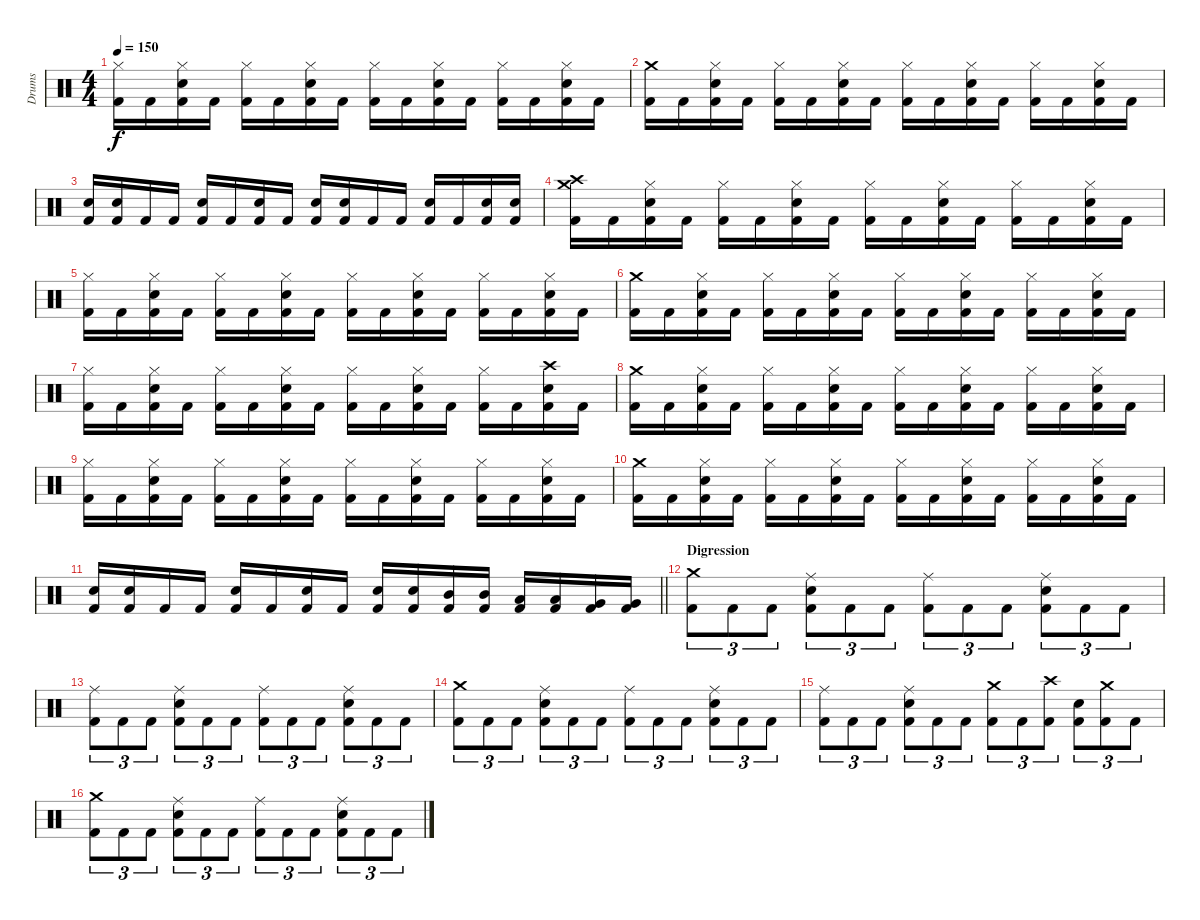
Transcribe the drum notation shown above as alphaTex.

\track ("Drums" "Drums") {instrument percussion}
\staff {score}
\articulation defaults
\ts (4 4)
\tempo 150
\clef neutral
\ks c
("Kick (hit) 2" "Hi-Hat (closed)").16{dy f} "Kick (hit) 2".16 ("Kick (hit) 2" "Snare (hit) 2" "Hi-Hat (closed)").16 "Kick (hit) 2".16 ("Kick (hit) 2" "Hi-Hat (closed)").16 "Kick (hit) 2".16 ("Kick (hit) 2" "Snare (hit) 2" "Hi-Hat (closed)").16 "Kick (hit) 2".16 ("Kick (hit) 2" "Hi-Hat (closed)").16 "Kick (hit) 2".16 ("Kick (hit) 2" "Snare (hit) 2" "Hi-Hat (closed)").16 "Kick (hit) 2".16 ("Kick (hit) 2" "Hi-Hat (closed)").16 "Kick (hit) 2".16 ("Kick (hit) 2" "Snare (hit) 2" "Hi-Hat (closed)").16 "Kick (hit) 2".16 |
("Kick (hit) 2" "Crash medium (hit)").16 "Kick (hit) 2".16 ("Kick (hit) 2" "Snare (hit) 2" "Hi-Hat (closed)").16 "Kick (hit) 2".16 ("Kick (hit) 2" "Hi-Hat (closed)").16 "Kick (hit) 2".16 ("Kick (hit) 2" "Snare (hit) 2" "Hi-Hat (closed)").16 "Kick (hit) 2".16 ("Kick (hit) 2" "Hi-Hat (closed)").16 "Kick (hit) 2".16 ("Kick (hit) 2" "Snare (hit) 2" "Hi-Hat (closed)").16 "Kick (hit) 2".16 ("Kick (hit) 2" "Hi-Hat (closed)").16 "Kick (hit) 2".16 ("Kick (hit) 2" "Snare (hit) 2" "Hi-Hat (closed)").16 "Kick (hit) 2".16 |
("Kick (hit) 2" "Snare (hit) 2").16 ("Kick (hit) 2" "Snare (hit) 2").16 "Kick (hit) 2".16 "Kick (hit) 2".16 ("Kick (hit) 2" "Snare (hit) 2").16 "Kick (hit) 2".16 ("Kick (hit) 2" "Snare (hit) 2").16 "Kick (hit) 2".16 ("Kick (hit) 2" "Snare (hit) 2").16 ("Kick (hit) 2" "Snare (hit) 2").16 "Kick (hit) 2".16 "Kick (hit) 2".16 ("Kick (hit) 2" "Snare (hit) 2").16 "Kick (hit) 2".16 ("Kick (hit) 2" "Snare (hit) 2").16 ("Kick (hit) 2" "Snare (hit) 2").16 |
("Kick (hit) 2" "Crash medium (hit)" "Crash high (hit)").16 "Kick (hit) 2".16 ("Kick (hit) 2" "Snare (hit) 2" "Hi-Hat (closed)").16 "Kick (hit) 2".16 ("Kick (hit) 2" "Hi-Hat (closed)").16 "Kick (hit) 2".16 ("Kick (hit) 2" "Snare (hit) 2" "Hi-Hat (closed)").16 "Kick (hit) 2".16 ("Kick (hit) 2" "Hi-Hat (closed)").16 "Kick (hit) 2".16 ("Kick (hit) 2" "Snare (hit) 2" "Hi-Hat (closed)").16 "Kick (hit) 2".16 ("Kick (hit) 2" "Hi-Hat (closed)").16 "Kick (hit) 2".16 ("Kick (hit) 2" "Snare (hit) 2" "Hi-Hat (closed)").16 "Kick (hit) 2".16 |
("Kick (hit) 2" "Hi-Hat (closed)").16 "Kick (hit) 2".16 ("Kick (hit) 2" "Snare (hit) 2" "Hi-Hat (closed)").16 "Kick (hit) 2".16 ("Kick (hit) 2" "Hi-Hat (closed)").16 "Kick (hit) 2".16 ("Kick (hit) 2" "Snare (hit) 2" "Hi-Hat (closed)").16 "Kick (hit) 2".16 ("Kick (hit) 2" "Hi-Hat (closed)").16 "Kick (hit) 2".16 ("Kick (hit) 2" "Snare (hit) 2" "Hi-Hat (closed)").16 "Kick (hit) 2".16 ("Kick (hit) 2" "Hi-Hat (closed)").16 "Kick (hit) 2".16 ("Kick (hit) 2" "Snare (hit) 2" "Hi-Hat (closed)").16 "Kick (hit) 2".16 |
("Kick (hit) 2" "Crash medium (hit)").16 "Kick (hit) 2".16 ("Kick (hit) 2" "Snare (hit) 2" "Hi-Hat (closed)").16 "Kick (hit) 2".16 ("Kick (hit) 2" "Hi-Hat (closed)").16 "Kick (hit) 2".16 ("Kick (hit) 2" "Snare (hit) 2" "Hi-Hat (closed)").16 "Kick (hit) 2".16 ("Kick (hit) 2" "Hi-Hat (closed)").16 "Kick (hit) 2".16 ("Kick (hit) 2" "Snare (hit) 2" "Hi-Hat (closed)").16 "Kick (hit) 2".16 ("Kick (hit) 2" "Hi-Hat (closed)").16 "Kick (hit) 2".16 ("Kick (hit) 2" "Snare (hit) 2" "Hi-Hat (closed)").16 "Kick (hit) 2".16 |
("Kick (hit) 2" "Hi-Hat (closed)").16 "Kick (hit) 2".16 ("Kick (hit) 2" "Snare (hit) 2" "Hi-Hat (closed)").16 "Kick (hit) 2".16 ("Kick (hit) 2" "Hi-Hat (closed)").16 "Kick (hit) 2".16 ("Kick (hit) 2" "Snare (hit) 2" "Hi-Hat (closed)").16 "Kick (hit) 2".16 ("Kick (hit) 2" "Hi-Hat (closed)").16 "Kick (hit) 2".16 ("Kick (hit) 2" "Snare (hit) 2" "Hi-Hat (closed)").16 "Kick (hit) 2".16 ("Kick (hit) 2" "Hi-Hat (closed)").16 "Kick (hit) 2".16 ("Kick (hit) 2" "Snare (hit) 2" "Crash high (hit)").16 "Kick (hit) 2".16 |
("Kick (hit) 2" "Crash medium (hit)").16 "Kick (hit) 2".16 ("Kick (hit) 2" "Snare (hit) 2" "Hi-Hat (closed)").16 "Kick (hit) 2".16 ("Kick (hit) 2" "Hi-Hat (closed)").16 "Kick (hit) 2".16 ("Kick (hit) 2" "Snare (hit) 2" "Hi-Hat (closed)").16 "Kick (hit) 2".16 ("Kick (hit) 2" "Hi-Hat (closed)").16 "Kick (hit) 2".16 ("Kick (hit) 2" "Snare (hit) 2" "Hi-Hat (closed)").16 "Kick (hit) 2".16 ("Kick (hit) 2" "Hi-Hat (closed)").16 "Kick (hit) 2".16 ("Kick (hit) 2" "Snare (hit) 2" "Hi-Hat (closed)").16 "Kick (hit) 2".16 |
("Kick (hit) 2" "Hi-Hat (closed)").16 "Kick (hit) 2".16 ("Kick (hit) 2" "Snare (hit) 2" "Hi-Hat (closed)").16 "Kick (hit) 2".16 ("Kick (hit) 2" "Hi-Hat (closed)").16 "Kick (hit) 2".16 ("Kick (hit) 2" "Snare (hit) 2" "Hi-Hat (closed)").16 "Kick (hit) 2".16 ("Kick (hit) 2" "Hi-Hat (closed)").16 "Kick (hit) 2".16 ("Kick (hit) 2" "Snare (hit) 2" "Hi-Hat (closed)").16 "Kick (hit) 2".16 ("Kick (hit) 2" "Hi-Hat (closed)").16 "Kick (hit) 2".16 ("Kick (hit) 2" "Snare (hit) 2" "Hi-Hat (closed)").16 "Kick (hit) 2".16 |
("Kick (hit) 2" "Crash medium (hit)").16 "Kick (hit) 2".16 ("Kick (hit) 2" "Snare (hit) 2" "Hi-Hat (closed)").16 "Kick (hit) 2".16 ("Kick (hit) 2" "Hi-Hat (closed)").16 "Kick (hit) 2".16 ("Kick (hit) 2" "Snare (hit) 2" "Hi-Hat (closed)").16 "Kick (hit) 2".16 ("Kick (hit) 2" "Hi-Hat (closed)").16 "Kick (hit) 2".16 ("Kick (hit) 2" "Snare (hit) 2" "Hi-Hat (closed)").16 "Kick (hit) 2".16 ("Kick (hit) 2" "Hi-Hat (closed)").16 "Kick (hit) 2".16 ("Kick (hit) 2" "Snare (hit) 2" "Hi-Hat (closed)").16 "Kick (hit) 2".16 |
\barLineRight lightlight
("Kick (hit) 2" "Snare (hit) 2").16 ("Kick (hit) 2" "Snare (hit) 2").16 "Kick (hit) 2".16 "Kick (hit) 2".16 ("Kick (hit) 2" "Snare (hit) 2").16 "Kick (hit) 2".16 ("Kick (hit) 2" "Snare (hit) 2").16 "Kick (hit) 2".16 ("Kick (hit) 2" "Snare (hit) 2").16 ("Kick (hit) 2" "Snare (hit) 2").16 ("Kick (hit) 2" "Mid Tom (hit)").16 ("Kick (hit) 2" "Mid Tom (hit)").16 ("Kick (hit) 2" "Low Tom (hit)").16 ("Kick (hit) 2" "Low Tom (hit)").16 ("Kick (hit) 2" "Very Low Tom (hit)").16 ("Kick (hit) 2" "Very Low Tom (hit)").16 |
\section ("" "Digression")
("Kick (hit) 2" "Crash medium (hit)").8{tu (3 2)} "Kick (hit) 2".8{tu (3 2)} "Kick (hit) 2".8{tu (3 2)} ("Kick (hit) 2" "Snare (hit) 2" "Ride (middle)").8{tu (3 2)} "Kick (hit) 2".8{tu (3 2)} "Kick (hit) 2".8{tu (3 2)} ("Kick (hit) 2" "Ride (middle)").8{tu (3 2)} "Kick (hit) 2".8{tu (3 2)} "Kick (hit) 2".8{tu (3 2)} ("Kick (hit) 2" "Snare (hit) 2" "Ride (middle)").8{tu (3 2)} "Kick (hit) 2".8{tu (3 2)} "Kick (hit) 2".8{tu (3 2)} |
("Kick (hit) 2" "Ride (middle)").8{tu (3 2)} "Kick (hit) 2".8{tu (3 2)} "Kick (hit) 2".8{tu (3 2)} ("Kick (hit) 2" "Snare (hit) 2" "Ride (middle)").8{tu (3 2)} "Kick (hit) 2".8{tu (3 2)} "Kick (hit) 2".8{tu (3 2)} ("Kick (hit) 2" "Ride (middle)").8{tu (3 2)} "Kick (hit) 2".8{tu (3 2)} "Kick (hit) 2".8{tu (3 2)} ("Kick (hit) 2" "Snare (hit) 2" "Ride (middle)").8{tu (3 2)} "Kick (hit) 2".8{tu (3 2)} "Kick (hit) 2".8{tu (3 2)} |
("Kick (hit) 2" "Crash medium (hit)").8{tu (3 2)} "Kick (hit) 2".8{tu (3 2)} "Kick (hit) 2".8{tu (3 2)} ("Kick (hit) 2" "Snare (hit) 2" "Ride (middle)").8{tu (3 2)} "Kick (hit) 2".8{tu (3 2)} "Kick (hit) 2".8{tu (3 2)} ("Kick (hit) 2" "Ride (middle)").8{tu (3 2)} "Kick (hit) 2".8{tu (3 2)} "Kick (hit) 2".8{tu (3 2)} ("Kick (hit) 2" "Snare (hit) 2" "Ride (middle)").8{tu (3 2)} "Kick (hit) 2".8{tu (3 2)} "Kick (hit) 2".8{tu (3 2)} |
("Kick (hit) 2" "Ride (middle)").8{tu (3 2)} "Kick (hit) 2".8{tu (3 2)} "Kick (hit) 2".8{tu (3 2)} ("Kick (hit) 2" "Snare (hit) 2" "Ride (middle)").8{tu (3 2)} "Kick (hit) 2".8{tu (3 2)} "Kick (hit) 2".8{tu (3 2)} ("Kick (hit) 2" "Crash medium (hit)").8{tu (3 2)} "Kick (hit) 2".8{tu (3 2)} ("Kick (hit) 2" "Crash high (hit)").8{tu (3 2)} ("Kick (hit) 2" "Snare (hit) 2").8{tu (3 2)} ("Kick (hit) 2" "Crash medium (hit)").8{tu (3 2)} "Kick (hit) 2".8{tu (3 2)} |
("Kick (hit) 2" "Crash medium (hit)").8{tu (3 2)} "Kick (hit) 2".8{tu (3 2)} "Kick (hit) 2".8{tu (3 2)} ("Kick (hit) 2" "Snare (hit) 2" "Ride (middle)").8{tu (3 2)} "Kick (hit) 2".8{tu (3 2)} "Kick (hit) 2".8{tu (3 2)} ("Kick (hit) 2" "Ride (middle)").8{tu (3 2)} "Kick (hit) 2".8{tu (3 2)} "Kick (hit) 2".8{tu (3 2)} ("Kick (hit) 2" "Snare (hit) 2" "Ride (middle)").8{tu (3 2)} "Kick (hit) 2".8{tu (3 2)} "Kick (hit) 2".8{tu (3 2)}
